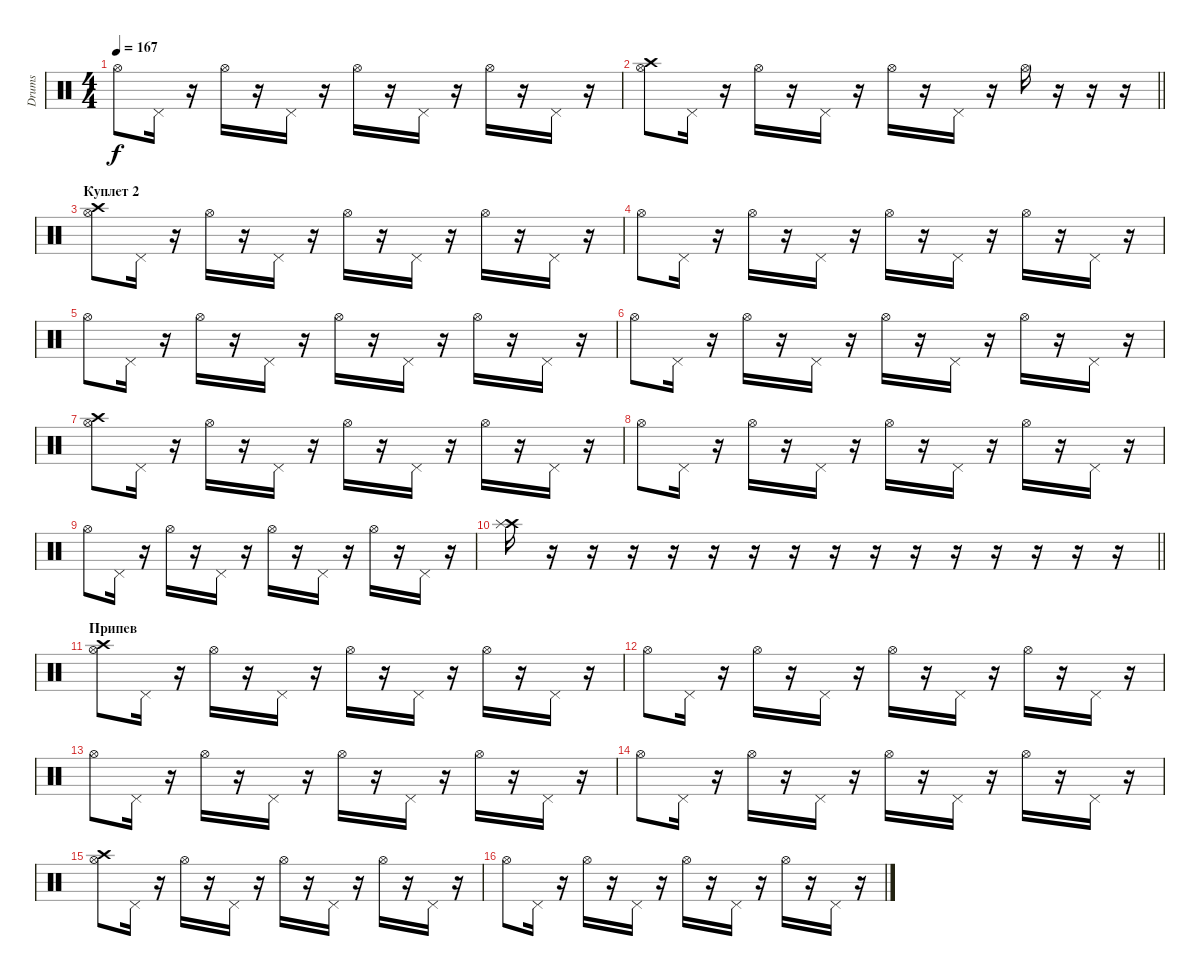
\track ("Drums" "Drums") {instrument percussion}
\staff {score}
\articulation defaults
\ts (4 4)
\tempo 167
\clef neutral
\ks c "Hi-Hat (open)".8{dy f} "Pedal Hi-Hat (hit)".16
r.16 "Hi-Hat (open)".16 r.16 "Pedal Hi-Hat (hit)".16 r.16 "Hi-Hat (open)".16 r.16 "Pedal Hi-Hat (hit)".16 r.16 "Hi-Hat (open)".16 r.16 "Pedal Hi-Hat (hit)".16 r.16 |
\barLineRight lightlight
("Crash high (hit)" "Hi-Hat (open)").8 "Pedal Hi-Hat (hit)".16 r.16 "Hi-Hat (open)".16 r.16 "Pedal Hi-Hat (hit)".16 r.16 "Hi-Hat (open)".16 r.16 "Pedal Hi-Hat (hit)".16 r.16 "Hi-Hat (open)".16 r.16 r.16 r.16 |
\section ("" "Куплет 2")
("Crash high (hit)" "Hi-Hat (open)").8 "Pedal Hi-Hat (hit)".16 r.16 "Hi-Hat (open)".16 r.16 "Pedal Hi-Hat (hit)".16 r.16 "Hi-Hat (open)".16 r.16 "Pedal Hi-Hat (hit)".16 r.16 "Hi-Hat (open)".16 r.16 "Pedal Hi-Hat (hit)".16 r.16 |
"Hi-Hat (open)".8 "Pedal Hi-Hat (hit)".16 r.16 "Hi-Hat (open)".16 r.16 "Pedal Hi-Hat (hit)".16 r.16 "Hi-Hat (open)".16 r.16 "Pedal Hi-Hat (hit)".16 r.16 "Hi-Hat (open)".16 r.16 "Pedal Hi-Hat (hit)".16 r.16 |
"Hi-Hat (open)".8 "Pedal Hi-Hat (hit)".16 r.16 "Hi-Hat (open)".16 r.16 "Pedal Hi-Hat (hit)".16 r.16 "Hi-Hat (open)".16 r.16 "Pedal Hi-Hat (hit)".16 r.16 "Hi-Hat (open)".16 r.16 "Pedal Hi-Hat (hit)".16 r.16 |
"Hi-Hat (open)".8 "Pedal Hi-Hat (hit)".16 r.16 "Hi-Hat (open)".16 r.16 "Pedal Hi-Hat (hit)".16 r.16 "Hi-Hat (open)".16 r.16 "Pedal Hi-Hat (hit)".16 r.16 "Hi-Hat (open)".16 r.16 "Pedal Hi-Hat (hit)".16 r.16 |
("Crash high (hit)" "Hi-Hat (open)").8 "Pedal Hi-Hat (hit)".16 r.16 "Hi-Hat (open)".16 r.16 "Pedal Hi-Hat (hit)".16 r.16 "Hi-Hat (open)".16 r.16 "Pedal Hi-Hat (hit)".16 r.16 "Hi-Hat (open)".16 r.16 "Pedal Hi-Hat (hit)".16 r.16 |
"Hi-Hat (open)".8 "Pedal Hi-Hat (hit)".16 r.16 "Hi-Hat (open)".16 r.16 "Pedal Hi-Hat (hit)".16 r.16 "Hi-Hat (open)".16 r.16 "Pedal Hi-Hat (hit)".16 r.16 "Hi-Hat (open)".16 r.16 "Pedal Hi-Hat (hit)".16 r.16 |
"Hi-Hat (open)".8 "Pedal Hi-Hat (hit)".16 r.16 "Hi-Hat (open)".16 r.16 "Pedal Hi-Hat (hit)".16 r.16 "Hi-Hat (open)".16 r.16 "Pedal Hi-Hat (hit)".16 r.16 "Hi-Hat (open)".16 r.16 "Pedal Hi-Hat (hit)".16 r.16 |
\barLineRight lightlight
("Crash high (hit)" "Splash (hit)").16 r.16 r.16 r.16 r.16 r.16 r.16 r.16 r.16 r.16 r.16 r.16 r.16 r.16 r.16 r.16 |
\section ("" "Припев")
("Crash high (hit)" "Hi-Hat (open)").8 "Pedal Hi-Hat (hit)".16 r.16 "Hi-Hat (open)".16 r.16 "Pedal Hi-Hat (hit)".16 r.16 "Hi-Hat (open)".16 r.16 "Pedal Hi-Hat (hit)".16 r.16 "Hi-Hat (open)".16 r.16 "Pedal Hi-Hat (hit)".16 r.16 |
"Hi-Hat (open)".8 "Pedal Hi-Hat (hit)".16 r.16 "Hi-Hat (open)".16 r.16 "Pedal Hi-Hat (hit)".16 r.16 "Hi-Hat (open)".16 r.16 "Pedal Hi-Hat (hit)".16 r.16 "Hi-Hat (open)".16 r.16 "Pedal Hi-Hat (hit)".16 r.16 |
"Hi-Hat (open)".8 "Pedal Hi-Hat (hit)".16 r.16 "Hi-Hat (open)".16 r.16 "Pedal Hi-Hat (hit)".16 r.16 "Hi-Hat (open)".16 r.16 "Pedal Hi-Hat (hit)".16 r.16 "Hi-Hat (open)".16 r.16 "Pedal Hi-Hat (hit)".16 r.16 |
"Hi-Hat (open)".8 "Pedal Hi-Hat (hit)".16 r.16 "Hi-Hat (open)".16 r.16 "Pedal Hi-Hat (hit)".16 r.16 "Hi-Hat (open)".16 r.16 "Pedal Hi-Hat (hit)".16 r.16 "Hi-Hat (open)".16 r.16 "Pedal Hi-Hat (hit)".16 r.16 |
("Crash high (hit)" "Hi-Hat (open)").8 "Pedal Hi-Hat (hit)".16 r.16 "Hi-Hat (open)".16 r.16 "Pedal Hi-Hat (hit)".16 r.16 "Hi-Hat (open)".16 r.16 "Pedal Hi-Hat (hit)".16 r.16 "Hi-Hat (open)".16 r.16 "Pedal Hi-Hat (hit)".16 r.16 |
"Hi-Hat (open)".8 "Pedal Hi-Hat (hit)".16 r.16 "Hi-Hat (open)".16 r.16 "Pedal Hi-Hat (hit)".16 r.16 "Hi-Hat (open)".16 r.16 "Pedal Hi-Hat (hit)".16 r.16 "Hi-Hat (open)".16 r.16 "Pedal Hi-Hat (hit)".16 r.16
